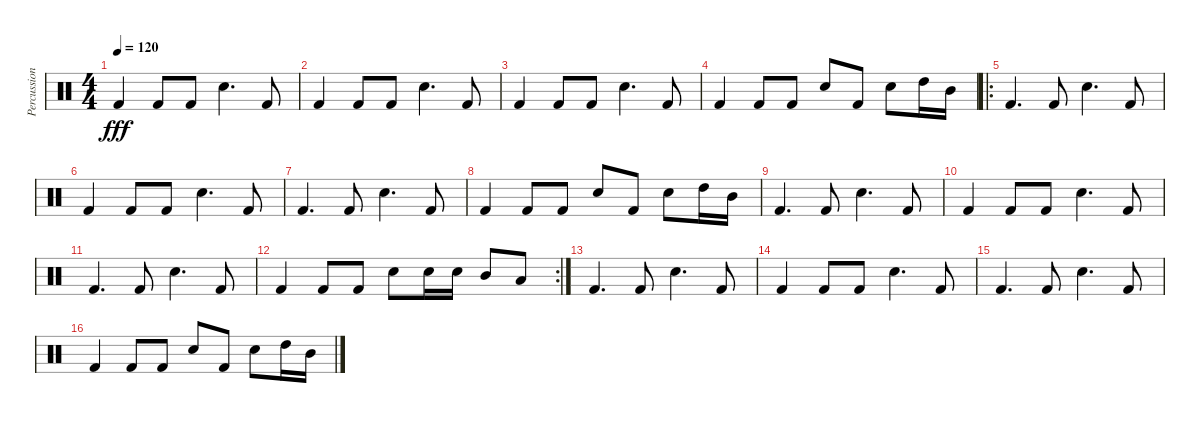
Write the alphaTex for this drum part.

\track ("Percussion 1" "Percussion") {instrument percussion}
\staff {score}
\articulation defaults
\ts (4 4)
\tempo 120
\clef neutral
\ks c "Kick (hit) 2".4{dy fff} "Kick (hit) 2".8 "Kick (hit) 2".8 "Electric Snare (hit)".4{d} "Kick (hit) 2".8
|
"Kick (hit) 2".4 "Kick (hit) 2".8 "Kick (hit) 2".8 "Electric Snare (hit)".4{d} "Kick (hit) 2".8 |
"Kick (hit) 2".4 "Kick (hit) 2".8 "Kick (hit) 2".8 "Electric Snare (hit)".4{d} "Kick (hit) 2".8 |
"Kick (hit) 2".4 "Kick (hit) 2".8 "Kick (hit) 2".8 "Electric Snare (hit)".8 "Kick (hit) 2".8 "Electric Snare (hit)".8 "High Tom (hit)".16 "Mid Tom (hit)".16 |
\ro "Kick (hit) 2".4{d} "Kick (hit) 2".8 "Electric Snare (hit)".4{d} "Kick (hit) 2".8
|
"Kick (hit) 2".4 "Kick (hit) 2".8 "Kick (hit) 2".8 "Electric Snare (hit)".4{d} "Kick (hit) 2".8 |
"Kick (hit) 2".4{d} "Kick (hit) 2".8 "Electric Snare (hit)".4{d} "Kick (hit) 2".8 |
"Kick (hit) 2".4 "Kick (hit) 2".8 "Kick (hit) 2".8 "Electric Snare (hit)".8 "Kick (hit) 2".8 "Electric Snare (hit)".8 "High Tom (hit)".16 "Mid Tom (hit)".16 |
"Kick (hit) 2".4{d} "Kick (hit) 2".8 "Electric Snare (hit)".4{d} "Kick (hit) 2".8 |
"Kick (hit) 2".4 "Kick (hit) 2".8 "Kick (hit) 2".8 "Electric Snare (hit)".4{d} "Kick (hit) 2".8 |
"Kick (hit) 2".4{d} "Kick (hit) 2".8 "Electric Snare (hit)".4{d} "Kick (hit) 2".8 |
\rc 2 "Kick (hit) 2".4 "Kick (hit) 2".8 "Kick (hit) 2".8 "Electric Snare (hit)".8 "Electric Snare (hit)".16 "Electric Snare (hit)".16 "Mid Tom (hit)".8 "Low Tom (hit)".8
|
"Kick (hit) 2".4{d} "Kick (hit) 2".8 "Electric Snare (hit)".4{d} "Kick (hit) 2".8 |
"Kick (hit) 2".4 "Kick (hit) 2".8 "Kick (hit) 2".8 "Electric Snare (hit)".4{d} "Kick (hit) 2".8 |
"Kick (hit) 2".4{d} "Kick (hit) 2".8 "Electric Snare (hit)".4{d} "Kick (hit) 2".8 |
"Kick (hit) 2".4 "Kick (hit) 2".8 "Kick (hit) 2".8 "Electric Snare (hit)".8 "Kick (hit) 2".8 "Electric Snare (hit)".8 "High Tom (hit)".16 "Mid Tom (hit)".16
